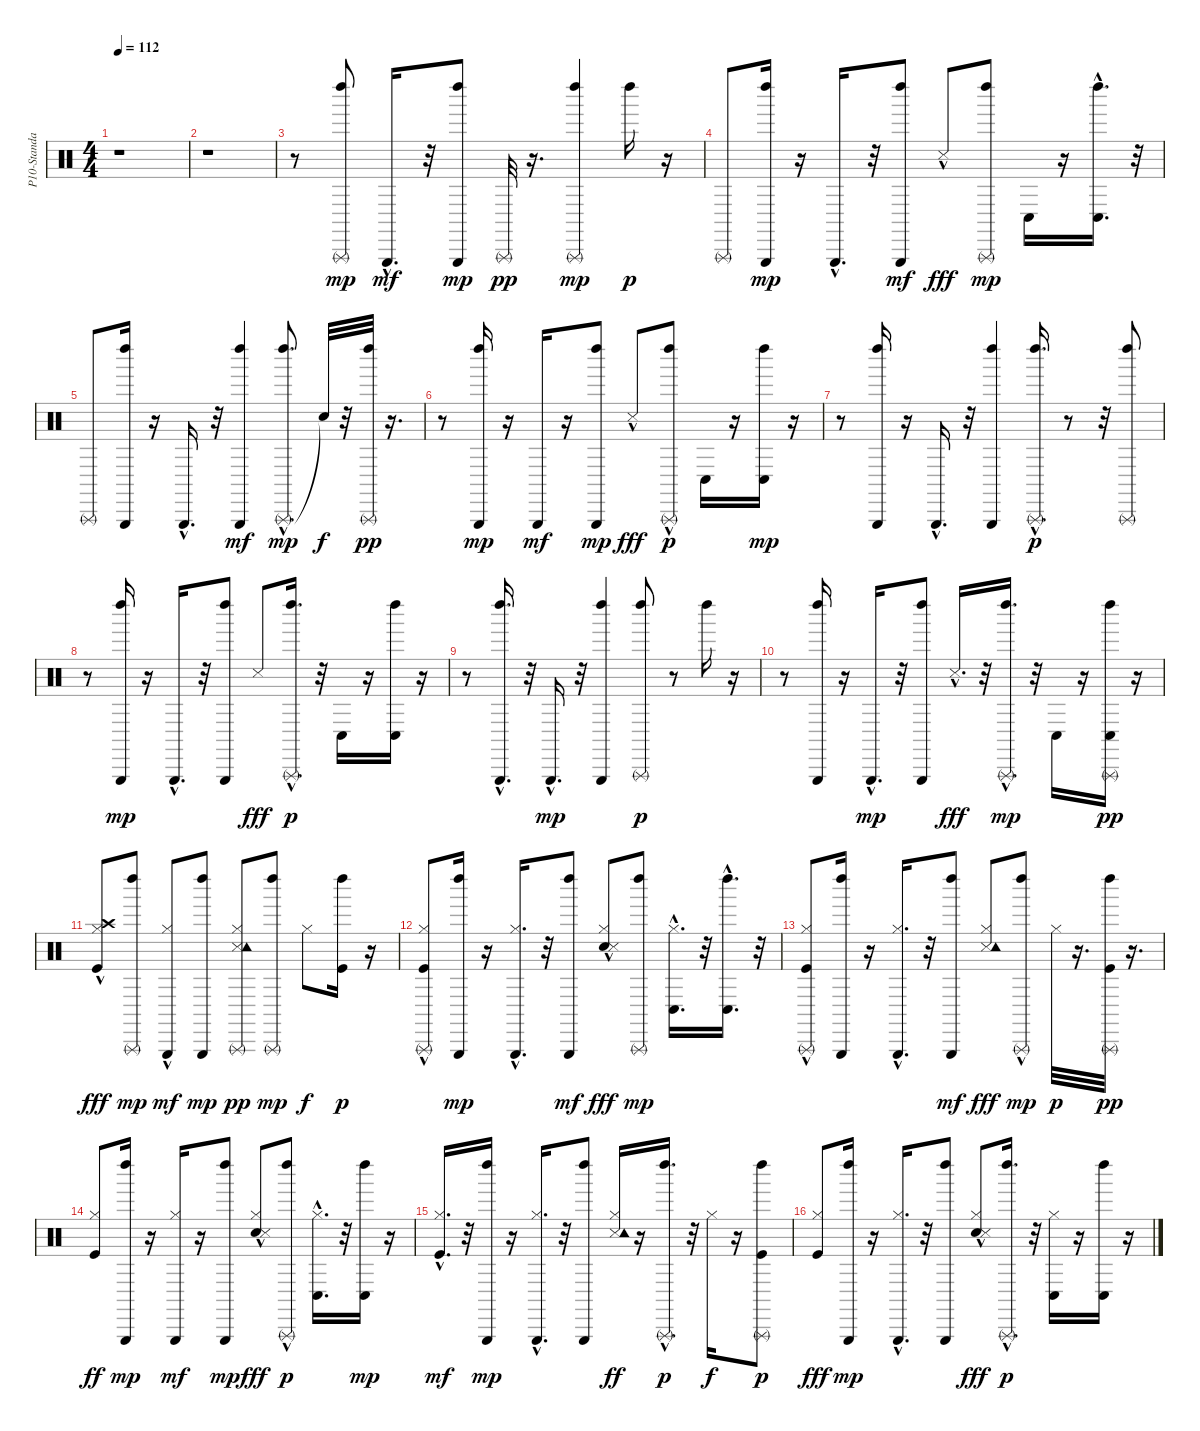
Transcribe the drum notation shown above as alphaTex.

\track ("P10-Standard Kit" "P10-Standa") {instrument percussion}
\staff {score}
\articulation defaults
\ts (4 4)
\tempo 112
\clef neutral
\ks c
r.1{dy mp} |
r.1 |
r.8 ("Left Maraca (hit)" "Triangle (rnute)").8 "Triangle (hit)"{hac}.16{d dy mf} r.32 ("Triangle (hit)" "Left Maraca (hit)").8{dy mp} "Triangle (rnute)".32{dy pp} r.16{d} ("Left Maraca (hit)" "Triangle (rnute)").4{dy mp} "Left Maraca (hit)".16{dy p} r.16 |
"Triangle (rnute)".8 ("Left Maraca (hit)" "Triangle (hit)").16{dy mp} r.16 "Triangle (hit)"{hac}.16{d} r.32 ("Left Maraca (hit)" "Triangle (hit)").8{dy mf} "Snare (side stick) 3"{hac}.8{dy fff} ("Triangle (rnute)" "Left Maraca (hit)").8{dy mp} "Conga low (hit)".16 r.16 ("Left Maraca (hit)" "Conga low (hit)"{hac}).16{d} r.32 |
"Triangle (rnute)".8 ("Left Maraca (hit)" "Triangle (hit)").16 r.16 "Triangle (hit)"{hac}.16{d} r.32 ("Left Maraca (hit)" "Triangle (hit)").4{dy mf} ("Triangle (rnute)"{hac} "Left Maraca (hit)").8{d dy mp} "Snare (hit)"{t}.32{dy f} r.32 ("Left Maraca (hit)" "Triangle (rnute)").32{dy pp} r.16{d} |
r.8 ("Left Maraca (hit)" "Triangle (hit)").16{dy mp} r.16 "Triangle (hit)".16{dy mf} r.16 ("Left Maraca (hit)" "Triangle (hit)").8{dy mp} "Snare (side stick) 3"{hac}.8{dy fff} ("Left Maraca (hit)" "Triangle (rnute)"{hac}).8{dy p} "Conga low (hit)".16 r.16 ("Left Maraca (hit)" "Conga low (hit)").16{dy mp} r.16 |
r.8 ("Left Maraca (hit)" "Triangle (hit)").16 r.16 "Triangle (hit)"{hac}.16{d} r.32 ("Left Maraca (hit)" "Triangle (hit)").4 ("Triangle (rnute)"{hac} "Left Maraca (hit)").16{d dy p} r.8 r.32 ("Left Maraca (hit)" "Triangle (rnute)").8 |
r.8 ("Left Maraca (hit)" "Triangle (hit)").16{dy mp} r.16 "Triangle (hit)"{hac}.16{d} r.32 ("Left Maraca (hit)" "Triangle (hit)").8 "Snare (side stick) 3".8{dy fff} ("Left Maraca (hit)" "Triangle (rnute)"{hac}).16{d dy p} r.32 "Conga low (hit)".16 r.16 ("Left Maraca (hit)" "Conga low (hit)").16 r.16 |
r.8 ("Triangle (hit)"{hac} "Left Maraca (hit)").16{d} r.32 "Triangle (hit)"{hac}.16{d dy mp} r.32 ("Left Maraca (hit)" "Triangle (hit)").4 ("Triangle (rnute)" "Left Maraca (hit)").8{dy p} r.8 "Left Maraca (hit)".16 r.16 |
r.8 ("Triangle (hit)" "Left Maraca (hit)").16 r.16 "Triangle (hit)"{hac}.16{d dy mp} r.32 ("Triangle (hit)" "Left Maraca (hit)").8 "Snare (side stick) 3"{hac}.16{d dy fff} r.32 ("Triangle (rnute)"{hac} "Left Maraca (hit)").16{d dy mp} r.32 "Conga low (hit)".16 r.16 ("Triangle (rnute)" "Left Maraca (hit)" "Conga low (hit)").16{dy pp} r.16 |
("Kick (hit)"{hac} "Hi-Hat (closed)" "Crash high (hit)").8{dy fff} ("Left Maraca (hit)" "Triangle (rnute)").8{dy mp} ("Hi-Hat (closed)" "Triangle (hit)"{hac}).8{dy mf} ("Triangle (hit)" "Left Maraca (hit)").8{dy mp} ("Snare (side stick) 3" "Hi-Hat (closed)" "Tambourine (hit)" "Triangle (rnute)").8{dy pp} ("Left Maraca (hit)" "Triangle (rnute)").8{dy mp} "Hi-Hat (closed)".8{dy f} ("Kick (hit)" "Left Maraca (hit)").16{dy p} r.16 |
("Kick (hit)"{hac} "Hi-Hat (closed)" "Triangle (rnute)").8 ("Left Maraca (hit)" "Triangle (hit)").16{dy mp} r.16 ("Hi-Hat (closed)"{hac} "Triangle (hit)"{hac}).16{d} r.32 ("Left Maraca (hit)" "Triangle (hit)").8{dy mf} ("Snare (hit)" "Hi-Hat (closed)" "Snare (side stick) 3"{hac}).8{dy fff} ("Triangle (rnute)" "Left Maraca (hit)").8{dy mp} ("Hi-Hat (closed)"{hac} "Conga low (hit)").16{d} r.32 ("Left Maraca (hit)" "Conga low (hit)"{hac}).16{d} r.32 |
("Kick (hit)"{hac} "Hi-Hat (closed)"{hac} "Triangle (rnute)").8 ("Left Maraca (hit)" "Triangle (hit)").16 r.16 ("Hi-Hat (closed)"{hac} "Triangle (hit)"{hac}).16{d} r.32 ("Left Maraca (hit)" "Triangle (hit)").8{dy mf} ("Snare (side stick) 3" "Tambourine (hit)" "Hi-Hat (closed)").8{dy fff} ("Triangle (rnute)"{hac} "Left Maraca (hit)").8{dy mp} "Hi-Hat (closed)".32{dy p} r.16{d} ("Kick (hit)" "Left Maraca (hit)" "Triangle (rnute)").32{dy pp} r.16{d} |
("Kick (hit)" "Hi-Hat (closed)").8{dy ff} ("Left Maraca (hit)" "Triangle (hit)").16{dy mp} r.16 ("Hi-Hat (closed)" "Triangle (hit)").16{dy mf} r.16 ("Left Maraca (hit)" "Triangle (hit)").8{dy mp} ("Snare (hit)" "Snare (side stick) 3" "Hi-Hat (closed)"{hac}).8{dy fff} ("Left Maraca (hit)" "Triangle (rnute)"{hac}).8{dy p} ("Hi-Hat (closed)"{hac} "Conga low (hit)").16{d} r.32 ("Left Maraca (hit)" "Conga low (hit)").16{dy mp} r.16 |
("Kick (hit)"{hac} "Hi-Hat (closed)").16{d dy mf} r.32 ("Left Maraca (hit)" "Triangle (hit)").16{dy mp} r.16 ("Hi-Hat (closed)" "Triangle (hit)"{hac}).16{d} r.32 ("Left Maraca (hit)" "Triangle (hit)").8 ("Snare (side stick) 3" "Hi-Hat (closed)" "Tambourine (hit)").16{dy ff} r.16 ("Triangle (rnute)"{hac} "Left Maraca (hit)").16{d dy p} r.32 "Hi-Hat (closed)".16{dy f} r.16 ("Kick (hit)" "Left Maraca (hit)" "Triangle (rnute)").8{dy p} |
("Kick (hit)" "Hi-Hat (closed)").8{dy fff} ("Left Maraca (hit)" "Triangle (hit)").16{dy mp} r.16 ("Hi-Hat (closed)" "Triangle (hit)"{hac}).16{d} r.32 ("Left Maraca (hit)" "Triangle (hit)").8 ("Snare (hit)"{hac} "Hi-Hat (closed)" "Snare (side stick) 3").8{dy fff} ("Left Maraca (hit)" "Triangle (rnute)"{hac}).16{d dy p} r.32 ("Hi-Hat (closed)" "Conga low (hit)").16 r.16 ("Left Maraca (hit)" "Conga low (hit)").16 r.16
